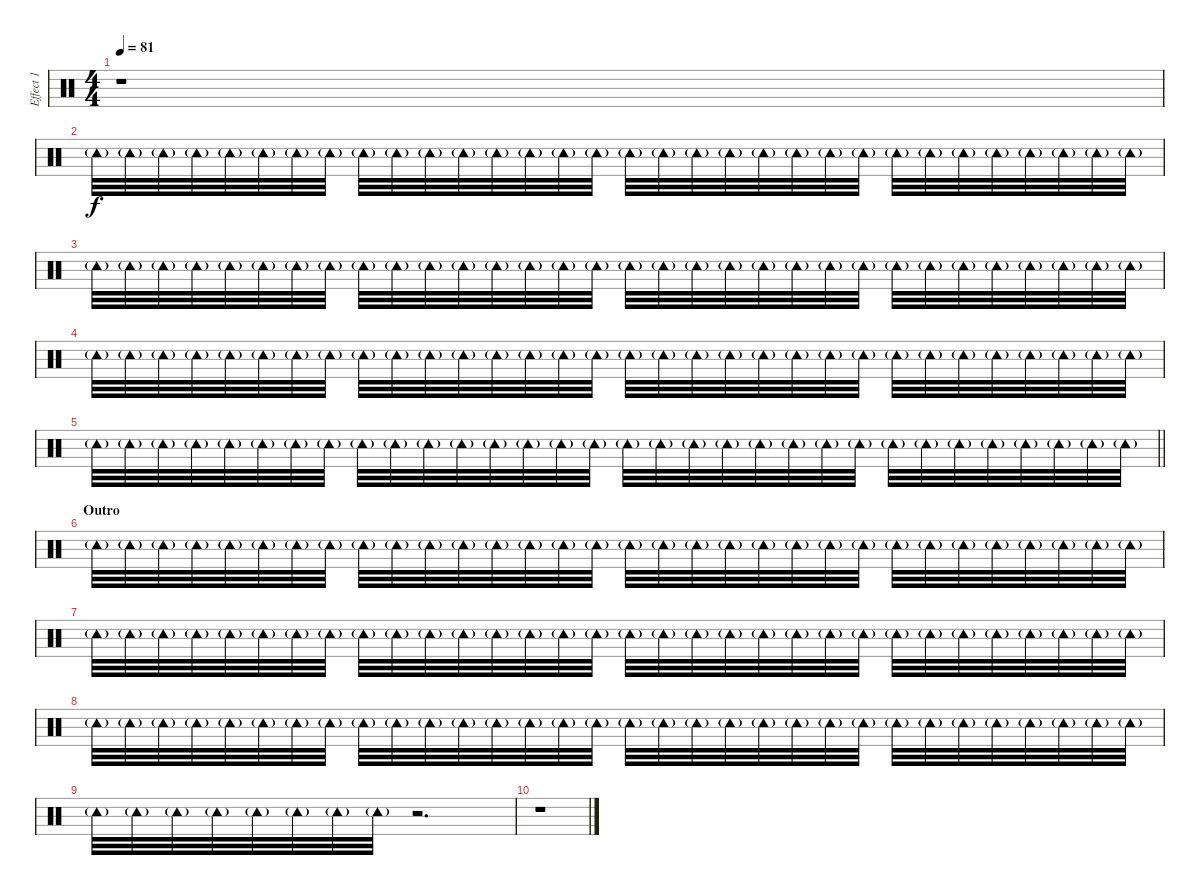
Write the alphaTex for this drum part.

\track ("Effect 1" "Effect 1") {instrument percussion}
\staff {score}
\articulation defaults
\ts (4 4)
\tempo 81
\clef neutral
\ks c
r.1{dy f} |
"Tambourine (hit)"{g}.32 "Tambourine (hit)"{g}.32 "Tambourine (hit)"{g}.32 "Tambourine (hit)"{g}.32 "Tambourine (hit)"{g}.32 "Tambourine (hit)"{g}.32 "Tambourine (hit)"{g}.32 "Tambourine (hit)"{g}.32 "Tambourine (hit)"{g}.32 "Tambourine (hit)"{g}.32 "Tambourine (hit)"{g}.32 "Tambourine (hit)"{g}.32 "Tambourine (hit)"{g}.32 "Tambourine (hit)"{g}.32 "Tambourine (hit)"{g}.32 "Tambourine (hit)"{g}.32 "Tambourine (hit)"{g}.32 "Tambourine (hit)"{g}.32 "Tambourine (hit)"{g}.32 "Tambourine (hit)"{g}.32 "Tambourine (hit)"{g}.32 "Tambourine (hit)"{g}.32 "Tambourine (hit)"{g}.32 "Tambourine (hit)"{g}.32 "Tambourine (hit)"{g}.32 "Tambourine (hit)"{g}.32 "Tambourine (hit)"{g}.32 "Tambourine (hit)"{g}.32 "Tambourine (hit)"{g}.32 "Tambourine (hit)"{g}.32 "Tambourine (hit)"{g}.32 "Tambourine (hit)"{g}.32 |
"Tambourine (hit)"{g}.32 "Tambourine (hit)"{g}.32 "Tambourine (hit)"{g}.32 "Tambourine (hit)"{g}.32 "Tambourine (hit)"{g}.32 "Tambourine (hit)"{g}.32 "Tambourine (hit)"{g}.32 "Tambourine (hit)"{g}.32 "Tambourine (hit)"{g}.32 "Tambourine (hit)"{g}.32 "Tambourine (hit)"{g}.32 "Tambourine (hit)"{g}.32 "Tambourine (hit)"{g}.32 "Tambourine (hit)"{g}.32 "Tambourine (hit)"{g}.32 "Tambourine (hit)"{g}.32 "Tambourine (hit)"{g}.32 "Tambourine (hit)"{g}.32 "Tambourine (hit)"{g}.32 "Tambourine (hit)"{g}.32 "Tambourine (hit)"{g}.32 "Tambourine (hit)"{g}.32 "Tambourine (hit)"{g}.32 "Tambourine (hit)"{g}.32 "Tambourine (hit)"{g}.32 "Tambourine (hit)"{g}.32 "Tambourine (hit)"{g}.32 "Tambourine (hit)"{g}.32 "Tambourine (hit)"{g}.32 "Tambourine (hit)"{g}.32 "Tambourine (hit)"{g}.32 "Tambourine (hit)"{g}.32 |
"Tambourine (hit)"{g}.32 "Tambourine (hit)"{g}.32 "Tambourine (hit)"{g}.32 "Tambourine (hit)"{g}.32 "Tambourine (hit)"{g}.32 "Tambourine (hit)"{g}.32 "Tambourine (hit)"{g}.32 "Tambourine (hit)"{g}.32 "Tambourine (hit)"{g}.32 "Tambourine (hit)"{g}.32 "Tambourine (hit)"{g}.32 "Tambourine (hit)"{g}.32 "Tambourine (hit)"{g}.32 "Tambourine (hit)"{g}.32 "Tambourine (hit)"{g}.32 "Tambourine (hit)"{g}.32 "Tambourine (hit)"{g}.32 "Tambourine (hit)"{g}.32 "Tambourine (hit)"{g}.32 "Tambourine (hit)"{g}.32 "Tambourine (hit)"{g}.32 "Tambourine (hit)"{g}.32 "Tambourine (hit)"{g}.32 "Tambourine (hit)"{g}.32 "Tambourine (hit)"{g}.32 "Tambourine (hit)"{g}.32 "Tambourine (hit)"{g}.32 "Tambourine (hit)"{g}.32 "Tambourine (hit)"{g}.32 "Tambourine (hit)"{g}.32 "Tambourine (hit)"{g}.32 "Tambourine (hit)"{g}.32 |
\barLineRight lightlight "Tambourine (hit)"{g}.32 "Tambourine (hit)"{g}.32 "Tambourine (hit)"{g}.32 "Tambourine (hit)"{g}.32 "Tambourine (hit)"{g}.32 "Tambourine (hit)"{g}.32 "Tambourine (hit)"{g}.32 "Tambourine (hit)"{g}.32 "Tambourine (hit)"{g}.32 "Tambourine (hit)"{g}.32 "Tambourine (hit)"{g}.32 "Tambourine (hit)"{g}.32 "Tambourine (hit)"{g}.32 "Tambourine (hit)"{g}.32 "Tambourine (hit)"{g}.32 "Tambourine (hit)"{g}.32 "Tambourine (hit)"{g}.32 "Tambourine (hit)"{g}.32 "Tambourine (hit)"{g}.32 "Tambourine (hit)"{g}.32 "Tambourine (hit)"{g}.32 "Tambourine (hit)"{g}.32 "Tambourine (hit)"{g}.32 "Tambourine (hit)"{g}.32 "Tambourine (hit)"{g}.32 "Tambourine (hit)"{g}.32 "Tambourine (hit)"{g}.32 "Tambourine (hit)"{g}.32 "Tambourine (hit)"{g}.32 "Tambourine (hit)"{g}.32 "Tambourine (hit)"{g}.32 "Tambourine (hit)"{g}.32
|
\section ("" "Outro")
"Tambourine (hit)"{g}.32 "Tambourine (hit)"{g}.32 "Tambourine (hit)"{g}.32 "Tambourine (hit)"{g}.32 "Tambourine (hit)"{g}.32 "Tambourine (hit)"{g}.32 "Tambourine (hit)"{g}.32 "Tambourine (hit)"{g}.32 "Tambourine (hit)"{g}.32 "Tambourine (hit)"{g}.32 "Tambourine (hit)"{g}.32 "Tambourine (hit)"{g}.32 "Tambourine (hit)"{g}.32 "Tambourine (hit)"{g}.32 "Tambourine (hit)"{g}.32 "Tambourine (hit)"{g}.32 "Tambourine (hit)"{g}.32 "Tambourine (hit)"{g}.32 "Tambourine (hit)"{g}.32 "Tambourine (hit)"{g}.32 "Tambourine (hit)"{g}.32 "Tambourine (hit)"{g}.32 "Tambourine (hit)"{g}.32 "Tambourine (hit)"{g}.32 "Tambourine (hit)"{g}.32 "Tambourine (hit)"{g}.32 "Tambourine (hit)"{g}.32 "Tambourine (hit)"{g}.32 "Tambourine (hit)"{g}.32 "Tambourine (hit)"{g}.32 "Tambourine (hit)"{g}.32 "Tambourine (hit)"{g}.32 |
"Tambourine (hit)"{g}.32 "Tambourine (hit)"{g}.32 "Tambourine (hit)"{g}.32 "Tambourine (hit)"{g}.32 "Tambourine (hit)"{g}.32 "Tambourine (hit)"{g}.32 "Tambourine (hit)"{g}.32 "Tambourine (hit)"{g}.32 "Tambourine (hit)"{g}.32 "Tambourine (hit)"{g}.32 "Tambourine (hit)"{g}.32 "Tambourine (hit)"{g}.32 "Tambourine (hit)"{g}.32 "Tambourine (hit)"{g}.32 "Tambourine (hit)"{g}.32 "Tambourine (hit)"{g}.32 "Tambourine (hit)"{g}.32 "Tambourine (hit)"{g}.32 "Tambourine (hit)"{g}.32 "Tambourine (hit)"{g}.32 "Tambourine (hit)"{g}.32 "Tambourine (hit)"{g}.32 "Tambourine (hit)"{g}.32 "Tambourine (hit)"{g}.32 "Tambourine (hit)"{g}.32 "Tambourine (hit)"{g}.32 "Tambourine (hit)"{g}.32 "Tambourine (hit)"{g}.32 "Tambourine (hit)"{g}.32 "Tambourine (hit)"{g}.32 "Tambourine (hit)"{g}.32 "Tambourine (hit)"{g}.32 |
"Tambourine (hit)"{g}.32 "Tambourine (hit)"{g}.32 "Tambourine (hit)"{g}.32 "Tambourine (hit)"{g}.32 "Tambourine (hit)"{g}.32 "Tambourine (hit)"{g}.32 "Tambourine (hit)"{g}.32 "Tambourine (hit)"{g}.32 "Tambourine (hit)"{g}.32 "Tambourine (hit)"{g}.32 "Tambourine (hit)"{g}.32 "Tambourine (hit)"{g}.32 "Tambourine (hit)"{g}.32 "Tambourine (hit)"{g}.32 "Tambourine (hit)"{g}.32 "Tambourine (hit)"{g}.32 "Tambourine (hit)"{g}.32 "Tambourine (hit)"{g}.32 "Tambourine (hit)"{g}.32 "Tambourine (hit)"{g}.32 "Tambourine (hit)"{g}.32 "Tambourine (hit)"{g}.32 "Tambourine (hit)"{g}.32 "Tambourine (hit)"{g}.32 "Tambourine (hit)"{g}.32 "Tambourine (hit)"{g}.32 "Tambourine (hit)"{g}.32 "Tambourine (hit)"{g}.32 "Tambourine (hit)"{g}.32 "Tambourine (hit)"{g}.32 "Tambourine (hit)"{g}.32 "Tambourine (hit)"{g}.32 |
"Tambourine (hit)"{g}.32 "Tambourine (hit)"{g}.32 "Tambourine (hit)"{g}.32 "Tambourine (hit)"{g}.32 "Tambourine (hit)"{g}.32 "Tambourine (hit)"{g}.32 "Tambourine (hit)"{g}.32 "Tambourine (hit)"{g}.32 r.2{d} |
r.1
